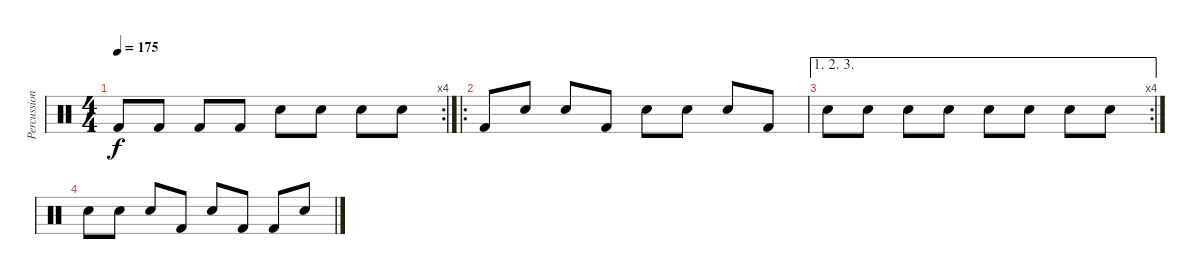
\track ("Percussion" "Percussion") {instrument percussion}
\staff {score}
\articulation defaults
\rc 4
\ts (4 4)
\tempo 175
\clef neutral
\ks c "Kick (hit) 2".8{dy f} "Kick (hit) 2".8 "Kick (hit) 2".8 "Kick (hit) 2".8 "Electric Snare (hit)".8 "Electric Snare (hit)".8 "Electric Snare (hit)".8 "Snare (hit)".8
|
\ro "Kick (hit) 2".8 "Snare (hit)".8 "Snare (hit)".8 "Kick (hit) 2".8 "Electric Snare (hit)".8 "Snare (hit)".8 "Snare (hit)".8 "Kick (hit) 2".8
|
\ae (1 2 3)
\rc 4 "Electric Snare (hit)".8 "Snare (hit)".8 "Snare (hit)".8 "Snare (hit)".8 "Electric Snare (hit)".8 "Electric Snare (hit)".8 "Snare (hit)".8 "Snare (hit)".8
|
"Electric Snare (hit)".8 "Snare (hit)".8 "Snare (hit)".8 "Kick (hit) 2".8 "Electric Snare (hit)".8 "Kick (hit) 2".8 "Kick (hit) 2".8 "Snare (hit)".8
